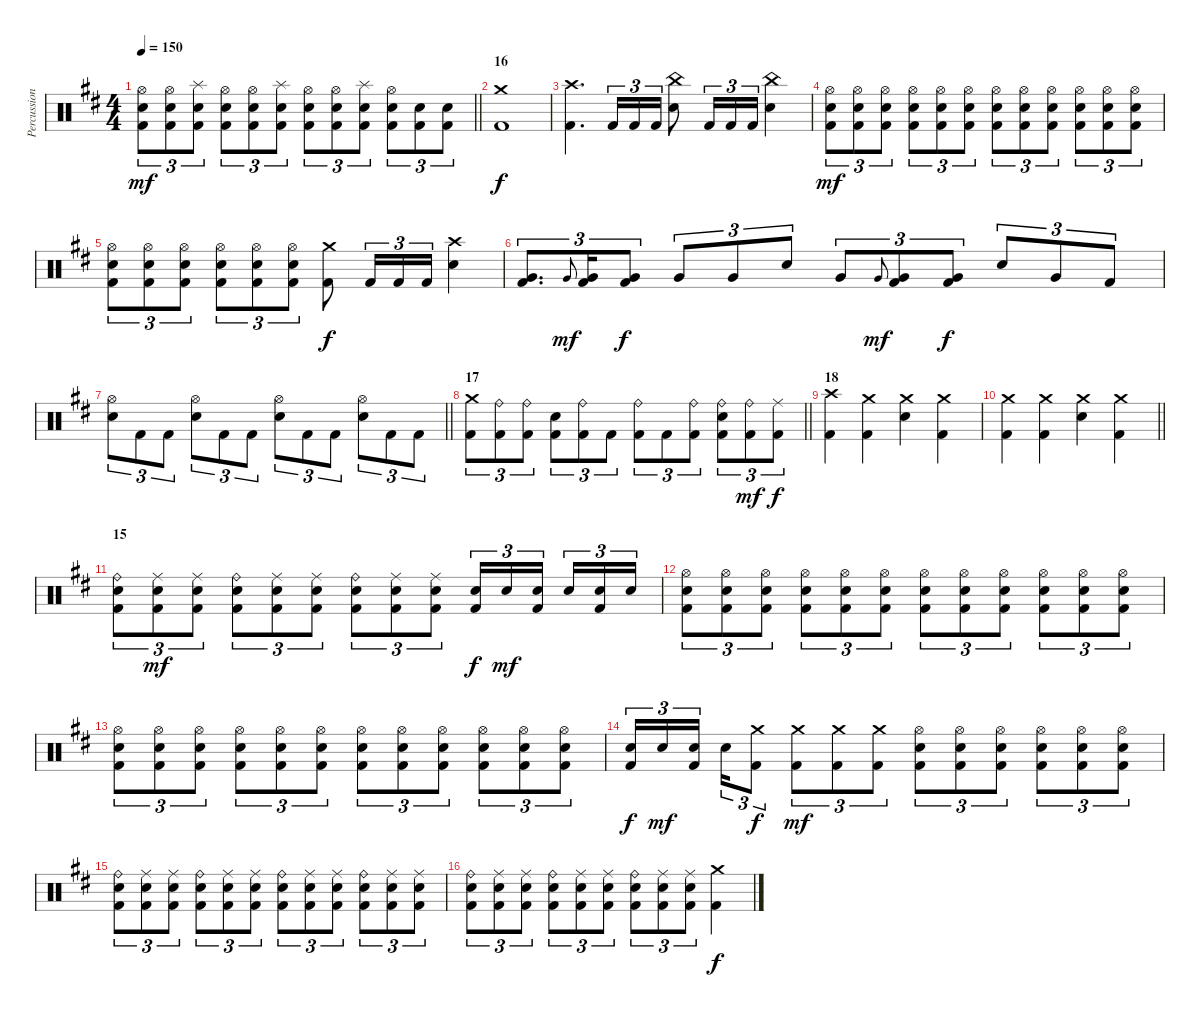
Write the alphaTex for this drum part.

\track ("Percussion" "Percussion") {instrument percussion}
\staff {score}
\articulation defaults
\ts (4 4)
\tempo 150
\clef neutral
\barLineRight lightlight
\ks bminor
("Hi-Hat (open)" "Snare (hit) 2" "Kick (hit) 2").8{tu (3 2) dy mf} ("Hi-Hat (open)" "Snare (hit) 2" "Kick (hit) 2").8{tu (3 2)} ("Splash (hit)" "Snare (hit) 2" "Kick (hit) 2").8{tu (3 2)} ("Hi-Hat (open)" "Snare (hit) 2" "Kick (hit) 2").8{tu (3 2)} ("Hi-Hat (open)" "Snare (hit) 2" "Kick (hit) 2").8{tu (3 2)} ("Splash (hit)" "Snare (hit) 2" "Kick (hit) 2").8{tu (3 2)} ("Hi-Hat (open)" "Snare (hit) 2" "Kick (hit) 2").8{tu (3 2)} ("Hi-Hat (open)" "Snare (hit) 2" "Kick (hit) 2").8{tu (3 2)} ("Splash (hit)" "Snare (hit) 2" "Kick (hit) 2").8{tu (3 2)} ("Hi-Hat (open)" "Snare (hit) 2" "Kick (hit) 2").8{tu (3 2)} ("Snare (hit) 2" "Kick (hit) 2").8{tu (3 2)} ("Snare (hit) 2" "Kick (hit) 2").8{tu (3 2)} |
\section ("" "16")
("Crash medium (hit)" "Kick (hit) 2").1{dy f} |
("Crash high (hit)" "Kick (hit) 2").4{d} "Kick (hit) 2".16{tu (3 2)} "Kick (hit) 2".16{tu (3 2)} "Kick (hit) 2".16{tu (3 2)} ("China (hit)" "Snare (hit) 2").8 "Kick (hit) 2".16{tu (3 2)} "Kick (hit) 2".16{tu (3 2)} "Kick (hit) 2".16{tu (3 2)} ("China (hit)" "Snare (hit) 2").4 |
("Hi-Hat (open)" "Snare (hit) 2" "Kick (hit) 2").8{tu (3 2) dy mf} ("Hi-Hat (open)" "Snare (hit) 2" "Kick (hit) 2").8{tu (3 2)} ("Hi-Hat (open)" "Snare (hit) 2" "Kick (hit) 2").8{tu (3 2)} ("Hi-Hat (open)" "Snare (hit) 2" "Kick (hit) 2").8{tu (3 2)} ("Hi-Hat (open)" "Snare (hit) 2" "Kick (hit) 2").8{tu (3 2)} ("Hi-Hat (open)" "Snare (hit) 2" "Kick (hit) 2").8{tu (3 2)} ("Hi-Hat (open)" "Snare (hit) 2" "Kick (hit) 2").8{tu (3 2)} ("Hi-Hat (open)" "Snare (hit) 2" "Kick (hit) 2").8{tu (3 2)} ("Hi-Hat (open)" "Snare (hit) 2" "Kick (hit) 2").8{tu (3 2)} ("Hi-Hat (open)" "Snare (hit) 2" "Kick (hit) 2").8{tu (3 2)} ("Hi-Hat (open)" "Snare (hit) 2" "Kick (hit) 2").8{tu (3 2)} ("Hi-Hat (open)" "Snare (hit) 2" "Kick (hit) 2").8{tu (3 2)} |
("Hi-Hat (open)" "Snare (hit) 2" "Kick (hit) 2").8{tu (3 2)} ("Hi-Hat (open)" "Snare (hit) 2" "Kick (hit) 2").8{tu (3 2)} ("Hi-Hat (open)" "Snare (hit) 2" "Kick (hit) 2").8{tu (3 2)} ("Hi-Hat (open)" "Snare (hit) 2" "Kick (hit) 2").8{tu (3 2)} ("Hi-Hat (open)" "Snare (hit) 2" "Kick (hit) 2").8{tu (3 2)} ("Hi-Hat (open)" "Snare (hit) 2" "Kick (hit) 2").8{tu (3 2)} ("Crash medium (hit)" "Kick (hit) 2").8{dy f} "Kick (hit) 2".16{tu (3 2)} "Kick (hit) 2".16{tu (3 2)} "Kick (hit) 2".16{tu (3 2)} ("Crash high (hit)" "Snare (hit) 2").4 |
("Very Low Tom (hit)" "Kick (hit) 2").8{d tu (3 2)} "Very Low Tom (hit)".8{gr onbeat dy mf} ("Very Low Tom (hit)" "Kick (hit) 2").16{tu (3 2)} ("Very Low Tom (hit)" "Kick (hit) 2").8{tu (3 2) dy f} "Very Low Tom (hit)".8{tu (3 2)} "Very Low Tom (hit)".8{tu (3 2)} "Snare (hit) 2".8{tu (3 2)} "Very Low Tom (hit)".8{tu (3 2)} "Very Low Tom (hit)".8{gr onbeat dy mf} ("Very Low Tom (hit)" "Kick (hit) 2").8{tu (3 2)} ("Very Low Tom (hit)" "Kick (hit) 2").8{tu (3 2) dy f} "Snare (hit) 2".8{tu (3 2)} "Very Low Tom (hit)".8{tu (3 2)} "Kick (hit) 2".8{tu (3 2)} |
\barLineRight lightlight
("Hi-Hat (open)" "Snare (hit) 2").8{tu (3 2)} "Kick (hit) 2".8{tu (3 2)} "Kick (hit) 2".8{tu (3 2)} ("Hi-Hat (open)" "Snare (hit) 2").8{tu (3 2)} "Kick (hit) 2".8{tu (3 2)} "Kick (hit) 2".8{tu (3 2)} ("Hi-Hat (open)" "Snare (hit) 2").8{tu (3 2)} "Kick (hit) 2".8{tu (3 2)} "Kick (hit) 2".8{tu (3 2)} ("Hi-Hat (open)" "Snare (hit) 2").8{tu (3 2)} "Kick (hit) 2".8{tu (3 2)} "Kick (hit) 2".8{tu (3 2)} |
\section ("" "17")
\barLineRight lightlight
("Crash medium (hit)" "Kick (hit) 2").8{tu (3 2)} ("Ride (bell)" "Kick (hit) 2").8{tu (3 2)} ("Ride (bell)" "Kick (hit) 2").8{tu (3 2)} ("Snare (hit) 2" "Kick (hit) 2").8{tu (3 2)} ("Ride (bell)" "Kick (hit) 2").8{tu (3 2)} "Kick (hit) 2".8{tu (3 2)} ("Ride (bell)" "Kick (hit) 2").8{tu (3 2)} "Kick (hit) 2".8{tu (3 2)} ("Ride (bell)" "Kick (hit) 2").8{tu (3 2)} ("Ride (bell)" "Snare (hit) 2" "Kick (hit) 2").8{tu (3 2)} ("Ride (bell)" "Kick (hit) 2").8{tu (3 2) dy mf} ("Ride (middle)" "Kick (hit) 2").8{tu (3 2) dy f} |
\section ("" "18")
("Crash high (hit)" "Kick (hit) 2").4 ("Crash medium (hit)" "Kick (hit) 2").4 ("Crash medium (hit)" "Snare (hit) 2").4 ("Crash medium (hit)" "Kick (hit) 2").4 |
\barLineRight lightlight
("Crash medium (hit)" "Kick (hit) 2").4 ("Crash medium (hit)" "Kick (hit) 2").4 ("Crash medium (hit)" "Snare (hit) 2").4 ("Crash medium (hit)" "Kick (hit) 2").4 |
\section ("" "15")
("Ride (bell)" "Snare (hit) 2" "Kick (hit) 2").8{tu (3 2)} ("Ride (middle)" "Snare (hit) 2" "Kick (hit) 2").8{tu (3 2) dy mf} ("Ride (middle)" "Snare (hit) 2" "Kick (hit) 2").8{tu (3 2)} ("Ride (bell)" "Snare (hit) 2" "Kick (hit) 2").8{tu (3 2)} ("Ride (middle)" "Snare (hit) 2" "Kick (hit) 2").8{tu (3 2)} ("Ride (middle)" "Snare (hit) 2" "Kick (hit) 2").8{tu (3 2)} ("Ride (bell)" "Snare (hit) 2" "Kick (hit) 2").8{tu (3 2)} ("Ride (middle)" "Snare (hit) 2" "Kick (hit) 2").8{tu (3 2)} ("Ride (middle)" "Snare (hit) 2" "Kick (hit) 2").8{tu (3 2)} ("Snare (hit) 2" "Kick (hit) 2").16{tu (3 2) dy f} "Snare (hit) 2".16{tu (3 2) dy mf} ("Snare (hit) 2" "Kick (hit) 2").16{tu (3 2) beam splitsecondary} "Snare (hit) 2".16{tu (3 2)} ("Snare (hit) 2" "Kick (hit) 2").16{tu (3 2)} "Snare (hit) 2".16{tu (3 2)} |
("Hi-Hat (open)" "Snare (hit) 2" "Kick (hit) 2").8{tu (3 2)} ("Hi-Hat (open)" "Snare (hit) 2" "Kick (hit) 2").8{tu (3 2)} ("Hi-Hat (open)" "Snare (hit) 2" "Kick (hit) 2").8{tu (3 2)} ("Hi-Hat (open)" "Snare (hit) 2" "Kick (hit) 2").8{tu (3 2)} ("Hi-Hat (open)" "Snare (hit) 2" "Kick (hit) 2").8{tu (3 2)} ("Hi-Hat (open)" "Snare (hit) 2" "Kick (hit) 2").8{tu (3 2)} ("Hi-Hat (open)" "Snare (hit) 2" "Kick (hit) 2").8{tu (3 2)} ("Hi-Hat (open)" "Snare (hit) 2" "Kick (hit) 2").8{tu (3 2)} ("Hi-Hat (open)" "Snare (hit) 2" "Kick (hit) 2").8{tu (3 2)} ("Hi-Hat (open)" "Snare (hit) 2" "Kick (hit) 2").8{tu (3 2)} ("Hi-Hat (open)" "Snare (hit) 2" "Kick (hit) 2").8{tu (3 2)} ("Hi-Hat (open)" "Snare (hit) 2" "Kick (hit) 2").8{tu (3 2)} |
("Hi-Hat (open)" "Snare (hit) 2" "Kick (hit) 2").8{tu (3 2)} ("Hi-Hat (open)" "Snare (hit) 2" "Kick (hit) 2").8{tu (3 2)} ("Hi-Hat (open)" "Snare (hit) 2" "Kick (hit) 2").8{tu (3 2)} ("Hi-Hat (open)" "Snare (hit) 2" "Kick (hit) 2").8{tu (3 2)} ("Hi-Hat (open)" "Snare (hit) 2" "Kick (hit) 2").8{tu (3 2)} ("Hi-Hat (open)" "Snare (hit) 2" "Kick (hit) 2").8{tu (3 2)} ("Hi-Hat (open)" "Snare (hit) 2" "Kick (hit) 2").8{tu (3 2)} ("Hi-Hat (open)" "Snare (hit) 2" "Kick (hit) 2").8{tu (3 2)} ("Hi-Hat (open)" "Snare (hit) 2" "Kick (hit) 2").8{tu (3 2)} ("Hi-Hat (open)" "Snare (hit) 2" "Kick (hit) 2").8{tu (3 2)} ("Hi-Hat (open)" "Snare (hit) 2" "Kick (hit) 2").8{tu (3 2)} ("Hi-Hat (open)" "Snare (hit) 2" "Kick (hit) 2").8{tu (3 2)} |
("Snare (hit) 2" "Kick (hit) 2").16{tu (3 2) dy f} "Snare (hit) 2".16{tu (3 2) dy mf} ("Snare (hit) 2" "Kick (hit) 2").16{tu (3 2) beam splitsecondary} "Snare (hit) 2".16{tu (3 2)} ("Crash medium (hit)" "Kick (hit) 2").8{tu (3 2) dy f} ("Crash medium (hit)" "Kick (hit) 2").8{tu (3 2) dy mf} ("Crash medium (hit)" "Kick (hit) 2").8{tu (3 2)} ("Crash medium (hit)" "Kick (hit) 2").8{tu (3 2)} ("Hi-Hat (open)" "Snare (hit) 2" "Kick (hit) 2").8{tu (3 2)} ("Hi-Hat (open)" "Snare (hit) 2" "Kick (hit) 2").8{tu (3 2)} ("Hi-Hat (open)" "Snare (hit) 2" "Kick (hit) 2").8{tu (3 2)} ("Hi-Hat (open)" "Snare (hit) 2" "Kick (hit) 2").8{tu (3 2)} ("Hi-Hat (open)" "Snare (hit) 2" "Kick (hit) 2").8{tu (3 2)} ("Hi-Hat (open)" "Snare (hit) 2" "Kick (hit) 2").8{tu (3 2)} |
("Ride (bell)" "Snare (hit) 2" "Kick (hit) 2").8{tu (3 2)} ("Ride (middle)" "Snare (hit) 2" "Kick (hit) 2").8{tu (3 2)} ("Ride (middle)" "Snare (hit) 2" "Kick (hit) 2").8{tu (3 2)} ("Ride (bell)" "Snare (hit) 2" "Kick (hit) 2").8{tu (3 2)} ("Ride (middle)" "Snare (hit) 2" "Kick (hit) 2").8{tu (3 2)} ("Ride (middle)" "Snare (hit) 2" "Kick (hit) 2").8{tu (3 2)} ("Ride (bell)" "Snare (hit) 2" "Kick (hit) 2").8{tu (3 2)} ("Ride (middle)" "Snare (hit) 2" "Kick (hit) 2").8{tu (3 2)} ("Ride (middle)" "Snare (hit) 2" "Kick (hit) 2").8{tu (3 2)} ("Ride (bell)" "Snare (hit) 2" "Kick (hit) 2").8{tu (3 2)} ("Ride (middle)" "Snare (hit) 2" "Kick (hit) 2").8{tu (3 2)} ("Ride (middle)" "Snare (hit) 2" "Kick (hit) 2").8{tu (3 2)} |
("Ride (bell)" "Snare (hit) 2" "Kick (hit) 2").8{tu (3 2)} ("Ride (middle)" "Snare (hit) 2" "Kick (hit) 2").8{tu (3 2)} ("Ride (middle)" "Snare (hit) 2" "Kick (hit) 2").8{tu (3 2)} ("Ride (bell)" "Snare (hit) 2" "Kick (hit) 2").8{tu (3 2)} ("Ride (middle)" "Snare (hit) 2" "Kick (hit) 2").8{tu (3 2)} ("Ride (middle)" "Snare (hit) 2" "Kick (hit) 2").8{tu (3 2)} ("Ride (bell)" "Snare (hit) 2" "Kick (hit) 2").8{tu (3 2)} ("Ride (middle)" "Snare (hit) 2" "Kick (hit) 2").8{tu (3 2)} ("Ride (middle)" "Snare (hit) 2" "Kick (hit) 2").8{tu (3 2)} ("Crash medium (hit)" "Kick (hit) 2").4{dy f}
